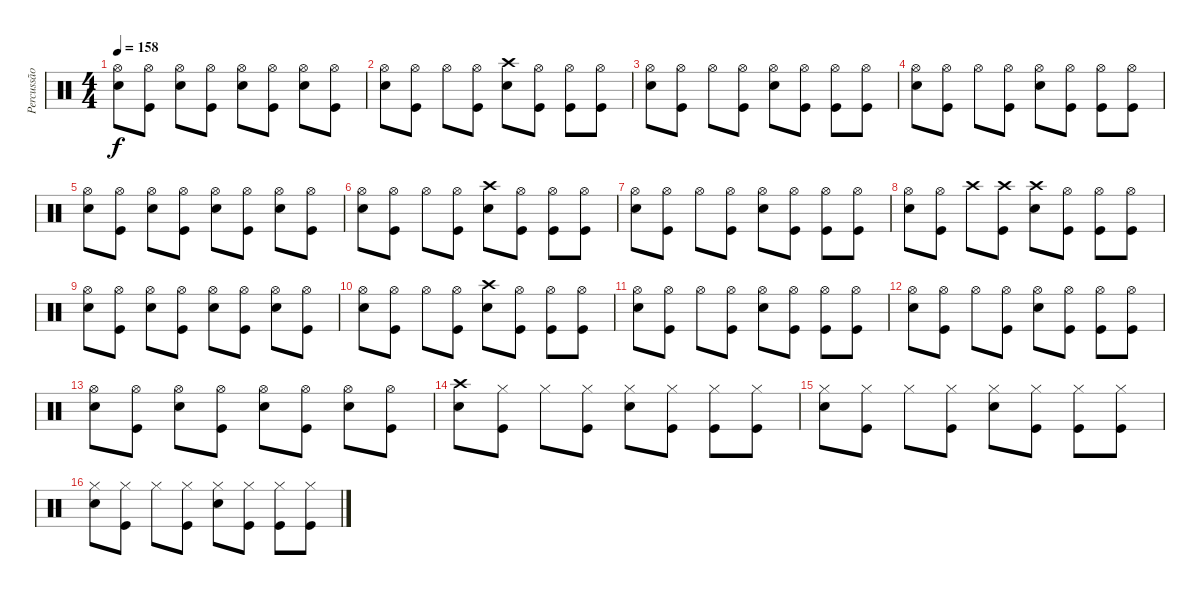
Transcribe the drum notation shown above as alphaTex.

\track ("Percussão" "Percussão") {instrument percussion}
\staff {score}
\articulation defaults
\ts (4 4)
\tempo 158
\clef neutral
\ks c
("Hi-Hat (open)" "Electric Snare (hit)").8{dy f} ("Hi-Hat (open)" "Kick (hit)").8 ("Hi-Hat (open)" "Electric Snare (hit)").8 ("Hi-Hat (open)" "Kick (hit)").8 ("Hi-Hat (open)" "Electric Snare (hit)").8 ("Hi-Hat (open)" "Kick (hit)").8 ("Hi-Hat (open)" "Electric Snare (hit)").8 ("Hi-Hat (open)" "Kick (hit)").8 |
("Hi-Hat (open)" "Electric Snare (hit)").8 ("Hi-Hat (open)" "Kick (hit)").8 "Hi-Hat (open)".8 ("Hi-Hat (open)" "Kick (hit)").8 ("Crash high (hit)" "Electric Snare (hit)").8 ("Hi-Hat (open)" "Kick (hit)").8 ("Hi-Hat (open)" "Kick (hit)").8 ("Hi-Hat (open)" "Kick (hit)").8 |
("Hi-Hat (open)" "Electric Snare (hit)").8 ("Hi-Hat (open)" "Kick (hit)").8 "Hi-Hat (open)".8 ("Hi-Hat (open)" "Kick (hit)").8 ("Hi-Hat (open)" "Electric Snare (hit)").8 ("Hi-Hat (open)" "Kick (hit)").8 ("Hi-Hat (open)" "Kick (hit)").8 ("Hi-Hat (open)" "Kick (hit)").8 |
("Hi-Hat (open)" "Electric Snare (hit)").8 ("Hi-Hat (open)" "Kick (hit)").8 "Hi-Hat (open)".8 ("Hi-Hat (open)" "Kick (hit)").8 ("Hi-Hat (open)" "Electric Snare (hit)").8 ("Hi-Hat (open)" "Kick (hit)").8 ("Hi-Hat (open)" "Kick (hit)").8 ("Hi-Hat (open)" "Kick (hit)").8 |
("Hi-Hat (open)" "Electric Snare (hit)").8 ("Hi-Hat (open)" "Kick (hit)").8 ("Hi-Hat (open)" "Electric Snare (hit)").8 ("Hi-Hat (open)" "Kick (hit)").8 ("Hi-Hat (open)" "Electric Snare (hit)").8 ("Hi-Hat (open)" "Kick (hit)").8 ("Hi-Hat (open)" "Electric Snare (hit)").8 ("Hi-Hat (open)" "Kick (hit)").8 |
("Hi-Hat (open)" "Electric Snare (hit)").8 ("Hi-Hat (open)" "Kick (hit)").8 "Hi-Hat (open)".8 ("Hi-Hat (open)" "Kick (hit)").8 ("Crash high (hit)" "Electric Snare (hit)").8 ("Hi-Hat (open)" "Kick (hit)").8 ("Hi-Hat (open)" "Kick (hit)").8 ("Hi-Hat (open)" "Kick (hit)").8 |
("Hi-Hat (open)" "Electric Snare (hit)").8 ("Hi-Hat (open)" "Kick (hit)").8 "Hi-Hat (open)".8 ("Hi-Hat (open)" "Kick (hit)").8 ("Hi-Hat (open)" "Electric Snare (hit)").8 ("Hi-Hat (open)" "Kick (hit)").8 ("Hi-Hat (open)" "Kick (hit)").8 ("Hi-Hat (open)" "Kick (hit)").8 |
("Hi-Hat (open)" "Electric Snare (hit)").8 ("Hi-Hat (open)" "Kick (hit)").8 "Crash high (hit)".8 ("Crash high (hit)" "Kick (hit)").8 ("Crash high (hit)" "Electric Snare (hit)").8 ("Hi-Hat (open)" "Kick (hit)").8 ("Hi-Hat (open)" "Kick (hit)").8 ("Hi-Hat (open)" "Kick (hit)").8 |
("Hi-Hat (open)" "Electric Snare (hit)").8 ("Hi-Hat (open)" "Kick (hit)").8 ("Hi-Hat (open)" "Electric Snare (hit)").8 ("Hi-Hat (open)" "Kick (hit)").8 ("Hi-Hat (open)" "Electric Snare (hit)").8 ("Hi-Hat (open)" "Kick (hit)").8 ("Hi-Hat (open)" "Electric Snare (hit)").8 ("Hi-Hat (open)" "Kick (hit)").8 |
("Hi-Hat (open)" "Electric Snare (hit)").8 ("Hi-Hat (open)" "Kick (hit)").8 "Hi-Hat (open)".8 ("Hi-Hat (open)" "Kick (hit)").8 ("Crash high (hit)" "Electric Snare (hit)").8 ("Hi-Hat (open)" "Kick (hit)").8 ("Hi-Hat (open)" "Kick (hit)").8 ("Hi-Hat (open)" "Kick (hit)").8 |
("Hi-Hat (open)" "Electric Snare (hit)").8 ("Hi-Hat (open)" "Kick (hit)").8 "Hi-Hat (open)".8 ("Hi-Hat (open)" "Kick (hit)").8 ("Hi-Hat (open)" "Electric Snare (hit)").8 ("Hi-Hat (open)" "Kick (hit)").8 ("Hi-Hat (open)" "Kick (hit)").8 ("Hi-Hat (open)" "Kick (hit)").8 |
("Hi-Hat (open)" "Electric Snare (hit)").8 ("Hi-Hat (open)" "Kick (hit)").8 "Hi-Hat (open)".8 ("Hi-Hat (open)" "Kick (hit)").8 ("Hi-Hat (open)" "Electric Snare (hit)").8 ("Hi-Hat (open)" "Kick (hit)").8 ("Hi-Hat (open)" "Kick (hit)").8 ("Hi-Hat (open)" "Kick (hit)").8 |
("Hi-Hat (open)" "Electric Snare (hit)").8 ("Hi-Hat (open)" "Kick (hit)").8 ("Hi-Hat (open)" "Electric Snare (hit)").8 ("Hi-Hat (open)" "Kick (hit)").8 ("Hi-Hat (open)" "Electric Snare (hit)").8 ("Hi-Hat (open)" "Kick (hit)").8 ("Hi-Hat (open)" "Electric Snare (hit)").8 ("Hi-Hat (open)" "Kick (hit)").8 |
("Crash high (hit)" "Electric Snare (hit)").8 ("Hi-Hat (closed)" "Kick (hit)").8 "Hi-Hat (closed)".8 ("Hi-Hat (closed)" "Kick (hit)").8 ("Hi-Hat (closed)" "Electric Snare (hit)").8 ("Hi-Hat (closed)" "Kick (hit)").8 ("Hi-Hat (closed)" "Kick (hit)").8 ("Hi-Hat (closed)" "Kick (hit)").8 |
("Hi-Hat (closed)" "Electric Snare (hit)").8 ("Hi-Hat (closed)" "Kick (hit)").8 "Hi-Hat (closed)".8 ("Hi-Hat (closed)" "Kick (hit)").8 ("Hi-Hat (closed)" "Electric Snare (hit)").8 ("Hi-Hat (closed)" "Kick (hit)").8 ("Hi-Hat (closed)" "Kick (hit)").8 ("Hi-Hat (closed)" "Kick (hit)").8 |
("Hi-Hat (closed)" "Electric Snare (hit)").8 ("Hi-Hat (closed)" "Kick (hit)").8 "Hi-Hat (closed)".8 ("Hi-Hat (closed)" "Kick (hit)").8 ("Hi-Hat (closed)" "Electric Snare (hit)").8 ("Hi-Hat (closed)" "Kick (hit)").8 ("Hi-Hat (closed)" "Kick (hit)").8 ("Hi-Hat (closed)" "Kick (hit)").8
